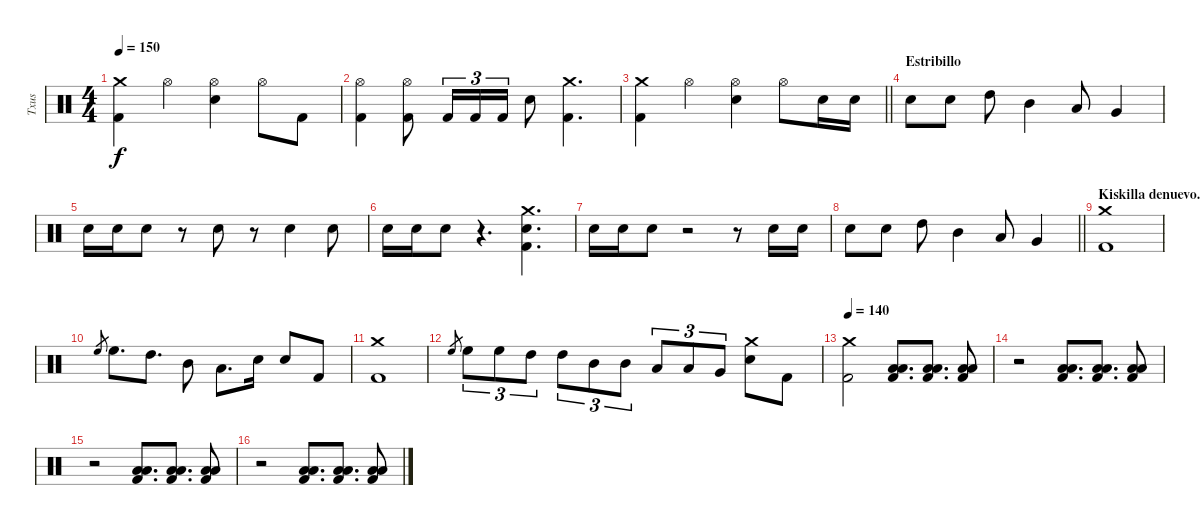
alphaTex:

\track ("Txus" "Txus") {instrument percussion}
\staff {score}
\articulation defaults
\ts (4 4)
\tempo 150
\clef neutral
\ks c
("Crash medium (hit)" "Kick (hit) 2").4{dy f} "Hi-Hat (open)".4 ("Hi-Hat (open)" "Electric Snare (hit)").4 "Hi-Hat (open)".8 "Kick (hit) 2".8 |
("Hi-Hat (open)" "Kick (hit) 2").4 ("Hi-Hat (open)" "Kick (hit) 2").8 "Kick (hit) 2".16{tu (3 2)} "Kick (hit) 2".16{tu (3 2)} "Kick (hit) 2".16{tu (3 2)} "Electric Snare (hit)".8 ("Crash medium (hit)" "Kick (hit) 2").4{d} |
\barLineRight lightlight
("Crash medium (hit)" "Kick (hit) 2").4 "Hi-Hat (open)".4 ("Hi-Hat (open)" "Electric Snare (hit)").4 "Hi-Hat (open)".8 "Electric Snare (hit)".16 "Electric Snare (hit)".16 |
\section ("" "Estribillo")
"Electric Snare (hit)".8 "Electric Snare (hit)".8 "High Tom (hit)".8 "Mid Tom (hit)".4 "Low Tom (hit)".8 "Very Low Tom (hit)".4 |
"Electric Snare (hit)".16 "Electric Snare (hit)".16 "Electric Snare (hit)".8 r.8 "Electric Snare (hit)".8 r.8 "Electric Snare (hit)".4 "Electric Snare (hit)".8 |
"Electric Snare (hit)".16 "Electric Snare (hit)".16 "Electric Snare (hit)".8 r.4{d} ("Crash medium (hit)" "Electric Snare (hit)" "Kick (hit) 2").4{d} |
"Electric Snare (hit)".16 "Electric Snare (hit)".16 "Electric Snare (hit)".8 r.2 r.8 "Electric Snare (hit)".16 "Electric Snare (hit)".16 |
\barLineRight lightlight "Electric Snare (hit)".8 "Electric Snare (hit)".8 "High Tom (hit)".8 "Mid Tom (hit)".4 "Low Tom (hit)".8 "Very Low Tom (hit)".4
|
\section ("" "Kiskilla denuevo...")
("Crash medium (hit)" "Kick (hit) 2").1 |
"High Floor Tom (hit)".8{gr} "High Floor Tom (hit)".8{d} "High Tom (hit)".8{d} "Mid Tom (hit)".8 "Low Tom (hit)".8{d} "Electric Snare (hit)".16 "Electric Snare (hit)".8 "Kick (hit) 2".8 |
("Crash medium (hit)" "Kick (hit) 2").1 |
"High Floor Tom (hit)".8{gr} "High Floor Tom (hit)".8{tu (3 2)} "High Floor Tom (hit)".8{tu (3 2)} "High Tom (hit)".8{tu (3 2)} "High Tom (hit)".8{tu (3 2)} "Mid Tom (hit)".8{tu (3 2)} "Mid Tom (hit)".8{tu (3 2)} "Low Tom (hit)".8{tu (3 2)} "Low Tom (hit)".8{tu (3 2)} "Very Low Tom (hit)".8{tu (3 2)} ("Crash medium (hit)" "Electric Snare (hit)").8 "Kick (hit) 2".8 |
\tempo 140
("Crash medium (hit)" "Kick (hit) 2").2 ("Low Tom (hit)" "Low Floor Tom (hit)" "Kick (hit) 2").8{d} ("Low Tom (hit)" "Low Floor Tom (hit)" "Kick (hit) 2").8{d} ("Low Tom (hit)" "Low Floor Tom (hit)" "Kick (hit) 2").8 |
r.2 ("Low Tom (hit)" "Low Floor Tom (hit)" "Kick (hit) 2").8{d} ("Low Tom (hit)" "Low Floor Tom (hit)" "Kick (hit) 2").8{d} ("Low Tom (hit)" "Low Floor Tom (hit)" "Kick (hit) 2").8 |
r.2 ("Low Tom (hit)" "Low Floor Tom (hit)" "Kick (hit) 2").8{d} ("Low Tom (hit)" "Low Floor Tom (hit)" "Kick (hit) 2").8{d} ("Low Tom (hit)" "Low Floor Tom (hit)" "Kick (hit) 2").8 |
r.2 ("Low Tom (hit)" "Low Floor Tom (hit)" "Kick (hit) 2").8{d} ("Low Tom (hit)" "Low Floor Tom (hit)" "Kick (hit) 2").8{d} ("Low Tom (hit)" "Low Floor Tom (hit)" "Kick (hit) 2").8
